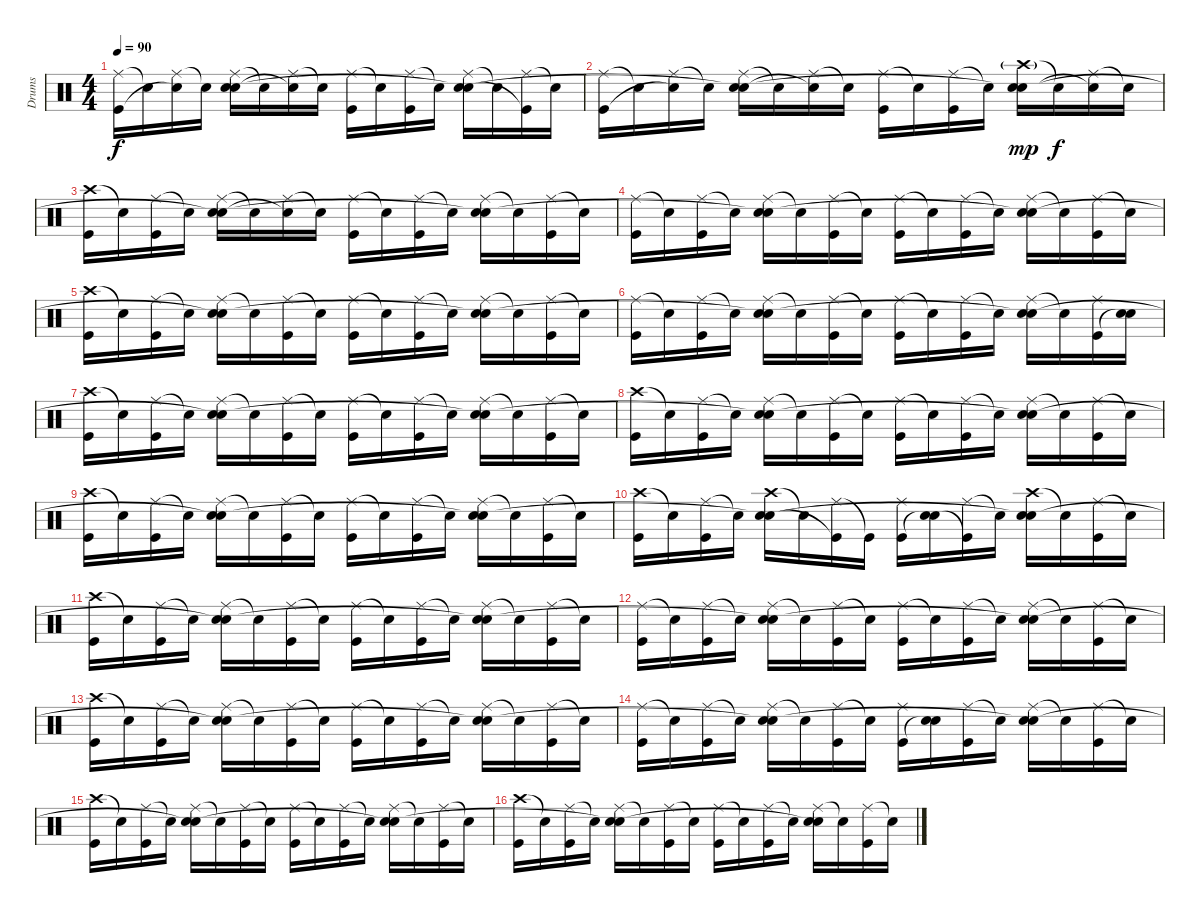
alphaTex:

\track ("Drums" "Drums") {instrument percussion}
\staff {score}
\articulation defaults
\ts (4 4)
\tempo 90
\clef neutral
\ks c
("Ride (middle)" "Kick (hit)").16{dy f} "Snare (hit)"{t}.16 ("Ride (middle)" "Snare (hit)"{t}).16 "Snare (hit)"{t}.16 ("Ride (middle)" "Electric Snare (hit)" "Snare (hit)"{t}).16 "Snare (hit)"{t}.16 ("Ride (middle)" "Snare (hit)"{t}).16 "Snare (hit)"{t}.16 ("Ride (middle)" "Kick (hit)").16 "Snare (hit)"{t}.16 ("Ride (middle)" "Kick (hit)").16 "Snare (hit)"{t}.16 ("Ride (middle)" "Electric Snare (hit)" "Snare (hit)"{t}).16 "Snare (hit)"{t}.16 ("Ride (middle)" "Kick (hit)"{t}).16 "Snare (hit)"{t}.16 |
("Ride (middle)" "Kick (hit)").16 "Snare (hit)"{t}.16 ("Ride (middle)" "Snare (hit)"{t}).16 "Snare (hit)"{t}.16 ("Ride (middle)" "Electric Snare (hit)" "Snare (hit)"{t}).16 "Snare (hit)"{t}.16 ("Ride (middle)" "Snare (hit)"{t}).16 "Snare (hit)"{t}.16 ("Ride (middle)" "Kick (hit)").16 "Snare (hit)"{t}.16 ("Ride (middle)" "Kick (hit)").16 "Snare (hit)"{t}.16 ("Crash high (hit)"{g} "Electric Snare (hit)" "Snare (hit)"{t}).16{dy mp} "Snare (hit)"{t}.16{dy f} ("Ride (middle)" "Snare (hit)"{t}).16 "Snare (hit)"{t}.16 |
("Crash high (hit)" "Kick (hit)").16 "Snare (hit)"{t}.16 ("Ride (middle)" "Kick (hit)").16 "Snare (hit)"{t}.16 ("Ride (middle)" "Electric Snare (hit)" "Snare (hit)"{t}).16 "Snare (hit)"{t}.16 ("Ride (middle)" "Snare (hit)"{t}).16 "Snare (hit)"{t}.16 ("Ride (middle)" "Kick (hit)").16 "Snare (hit)"{t}.16 ("Ride (middle)" "Kick (hit)").16 "Snare (hit)"{t}.16 ("Ride (middle)" "Electric Snare (hit)" "Snare (hit)"{t}).16 "Snare (hit)"{t}.16 ("Ride (middle)" "Kick (hit)").16 "Snare (hit)"{t}.16 |
("Ride (middle)" "Kick (hit)").16 "Snare (hit)"{t}.16 ("Ride (middle)" "Kick (hit)").16 "Snare (hit)"{t}.16 ("Ride (middle)" "Electric Snare (hit)" "Snare (hit)"{t}).16 "Snare (hit)"{t}.16 ("Ride (middle)" "Kick (hit)").16 "Snare (hit)"{t}.16 ("Ride (middle)" "Kick (hit)").16 "Snare (hit)"{t}.16 ("Ride (middle)" "Kick (hit)").16 "Snare (hit)"{t}.16 ("Ride (middle)" "Electric Snare (hit)" "Snare (hit)"{t}).16 "Snare (hit)"{t}.16 ("Ride (middle)" "Kick (hit)").16 "Snare (hit)"{t}.16 |
("Crash high (hit)" "Kick (hit)").16 "Snare (hit)"{t}.16 ("Ride (middle)" "Kick (hit)").16 "Snare (hit)"{t}.16 ("Ride (middle)" "Electric Snare (hit)" "Snare (hit)"{t}).16 "Snare (hit)"{t}.16 ("Ride (middle)" "Kick (hit)").16 "Snare (hit)"{t}.16 ("Ride (middle)" "Kick (hit)").16 "Snare (hit)"{t}.16 ("Ride (middle)" "Kick (hit)").16 "Snare (hit)"{t}.16 ("Ride (middle)" "Electric Snare (hit)" "Snare (hit)"{t}).16 "Snare (hit)"{t}.16 ("Ride (middle)" "Kick (hit)").16 "Snare (hit)"{t}.16 |
("Ride (middle)" "Kick (hit)").16 "Snare (hit)"{t}.16 ("Ride (middle)" "Kick (hit)").16 "Snare (hit)"{t}.16 ("Ride (middle)" "Electric Snare (hit)" "Snare (hit)"{t}).16 "Snare (hit)"{t}.16 ("Ride (middle)" "Kick (hit)").16 "Snare (hit)"{t}.16 ("Ride (middle)" "Kick (hit)").16 "Snare (hit)"{t}.16 ("Ride (middle)" "Kick (hit)").16 "Snare (hit)"{t}.16 ("Ride (middle)" "Electric Snare (hit)" "Snare (hit)"{t}).16 "Snare (hit)"{t}.16 ("Ride (middle)" "Kick (hit)").16 ("Electric Snare (hit)" "Snare (hit)"{t}).16 |
("Crash high (hit)" "Kick (hit)").16 "Snare (hit)"{t}.16 ("Ride (middle)" "Kick (hit)").16 "Snare (hit)"{t}.16 ("Ride (middle)" "Electric Snare (hit)" "Snare (hit)"{t}).16 "Snare (hit)"{t}.16 ("Ride (middle)" "Kick (hit)").16 "Snare (hit)"{t}.16 ("Ride (middle)" "Kick (hit)").16 "Snare (hit)"{t}.16 ("Ride (middle)" "Kick (hit)").16 "Snare (hit)"{t}.16 ("Ride (middle)" "Electric Snare (hit)" "Snare (hit)"{t}).16 "Snare (hit)"{t}.16 ("Ride (middle)" "Kick (hit)").16 "Snare (hit)"{t}.16 |
("Crash high (hit)" "Kick (hit)").16 "Snare (hit)"{t}.16 ("Ride (middle)" "Kick (hit)").16 "Snare (hit)"{t}.16 ("Ride (middle)" "Electric Snare (hit)" "Snare (hit)"{t}).16 "Snare (hit)"{t}.16 ("Ride (middle)" "Kick (hit)").16 "Snare (hit)"{t}.16 ("Ride (middle)" "Kick (hit)").16 "Snare (hit)"{t}.16 ("Ride (middle)" "Kick (hit)").16 "Snare (hit)"{t}.16 ("Ride (middle)" "Electric Snare (hit)" "Snare (hit)"{t}).16 "Snare (hit)"{t}.16 ("Ride (middle)" "Kick (hit)").16 "Snare (hit)"{t}.16 |
("Crash high (hit)" "Kick (hit)").16 "Snare (hit)"{t}.16 ("Ride (middle)" "Kick (hit)").16 "Snare (hit)"{t}.16 ("Ride (middle)" "Electric Snare (hit)" "Snare (hit)"{t}).16 "Snare (hit)"{t}.16 ("Ride (middle)" "Kick (hit)").16 "Snare (hit)"{t}.16 ("Ride (middle)" "Kick (hit)").16 "Snare (hit)"{t}.16 ("Ride (middle)" "Kick (hit)").16 "Snare (hit)"{t}.16 ("Ride (middle)" "Electric Snare (hit)" "Snare (hit)"{t}).16 "Snare (hit)"{t}.16 ("Ride (middle)" "Kick (hit)").16 "Snare (hit)"{t}.16 |
("Crash high (hit)" "Kick (hit)").16 "Snare (hit)"{t}.16 ("Ride (middle)" "Kick (hit)").16 "Snare (hit)"{t}.16 ("Crash high (hit)" "Electric Snare (hit)" "Snare (hit)"{t}).16 "Snare (hit)"{t}.16 ("Ride (middle)" "Kick (hit)"{t}).16 "Kick (hit)"{t}.16 ("Ride (middle)" "Kick (hit)").16 ("Electric Snare (hit)" "Snare (hit)"{t}).16 ("Ride (middle)" "Kick (hit)"{t}).16 "Snare (hit)"{t}.16 ("Crash high (hit)" "Electric Snare (hit)" "Snare (hit)"{t}).16 "Snare (hit)"{t}.16 ("Ride (middle)" "Kick (hit)").16 "Snare (hit)"{t}.16 |
("Crash high (hit)" "Kick (hit)").16 "Snare (hit)"{t}.16 ("Ride (middle)" "Kick (hit)").16 "Snare (hit)"{t}.16 ("Ride (middle)" "Electric Snare (hit)" "Snare (hit)"{t}).16 "Snare (hit)"{t}.16 ("Ride (middle)" "Kick (hit)").16 "Snare (hit)"{t}.16 ("Ride (middle)" "Kick (hit)").16 "Snare (hit)"{t}.16 ("Ride (middle)" "Kick (hit)").16 "Snare (hit)"{t}.16 ("Ride (middle)" "Electric Snare (hit)" "Snare (hit)"{t}).16 "Snare (hit)"{t}.16 ("Ride (middle)" "Kick (hit)").16 "Snare (hit)"{t}.16 |
("Ride (middle)" "Kick (hit)").16 "Snare (hit)"{t}.16 ("Ride (middle)" "Kick (hit)").16 "Snare (hit)"{t}.16 ("Ride (middle)" "Electric Snare (hit)" "Snare (hit)"{t}).16 "Snare (hit)"{t}.16 ("Ride (middle)" "Kick (hit)").16 "Snare (hit)"{t}.16 ("Ride (middle)" "Kick (hit)").16 "Snare (hit)"{t}.16 ("Ride (middle)" "Kick (hit)").16 "Snare (hit)"{t}.16 ("Ride (middle)" "Electric Snare (hit)" "Snare (hit)"{t}).16 "Snare (hit)"{t}.16 ("Ride (middle)" "Kick (hit)").16 "Snare (hit)"{t}.16 |
("Crash high (hit)" "Kick (hit)").16 "Snare (hit)"{t}.16 ("Ride (middle)" "Kick (hit)").16 "Snare (hit)"{t}.16 ("Ride (middle)" "Electric Snare (hit)" "Snare (hit)"{t}).16 "Snare (hit)"{t}.16 ("Ride (middle)" "Kick (hit)").16 "Snare (hit)"{t}.16 ("Ride (middle)" "Kick (hit)").16 "Snare (hit)"{t}.16 ("Ride (middle)" "Kick (hit)").16 "Snare (hit)"{t}.16 ("Ride (middle)" "Electric Snare (hit)" "Snare (hit)"{t}).16 "Snare (hit)"{t}.16 ("Ride (middle)" "Kick (hit)").16 "Snare (hit)"{t}.16 |
("Ride (middle)" "Kick (hit)").16 "Snare (hit)"{t}.16 ("Ride (middle)" "Kick (hit)").16 "Snare (hit)"{t}.16 ("Ride (middle)" "Electric Snare (hit)" "Snare (hit)"{t}).16 "Snare (hit)"{t}.16 ("Ride (middle)" "Kick (hit)").16 "Snare (hit)"{t}.16 ("Ride (middle)" "Kick (hit)").16 ("Electric Snare (hit)" "Snare (hit)"{t}).16 ("Ride (middle)" "Kick (hit)").16 "Snare (hit)"{t}.16 ("Ride (middle)" "Electric Snare (hit)" "Snare (hit)"{t}).16 "Snare (hit)"{t}.16 ("Ride (middle)" "Kick (hit)").16 "Snare (hit)"{t}.16 |
("Crash high (hit)" "Kick (hit)").16 "Snare (hit)"{t}.16 ("Ride (middle)" "Kick (hit)").16 "Snare (hit)"{t}.16 ("Ride (middle)" "Electric Snare (hit)" "Snare (hit)"{t}).16 "Snare (hit)"{t}.16 ("Ride (middle)" "Kick (hit)").16 "Snare (hit)"{t}.16 ("Ride (middle)" "Kick (hit)").16 "Snare (hit)"{t}.16 ("Ride (middle)" "Kick (hit)").16 "Snare (hit)"{t}.16 ("Ride (middle)" "Electric Snare (hit)" "Snare (hit)"{t}).16 "Snare (hit)"{t}.16 ("Ride (middle)" "Kick (hit)").16 "Snare (hit)"{t}.16 |
("Crash high (hit)" "Kick (hit)").16 "Snare (hit)"{t}.16 ("Ride (middle)" "Kick (hit)").16 "Snare (hit)"{t}.16 ("Ride (middle)" "Electric Snare (hit)" "Snare (hit)"{t}).16 "Snare (hit)"{t}.16 ("Ride (middle)" "Kick (hit)").16 "Snare (hit)"{t}.16 ("Ride (middle)" "Kick (hit)").16 "Snare (hit)"{t}.16 ("Ride (middle)" "Kick (hit)").16 "Snare (hit)"{t}.16 ("Ride (middle)" "Electric Snare (hit)" "Snare (hit)"{t}).16 "Snare (hit)"{t}.16 ("Ride (middle)" "Kick (hit)").16 "Snare (hit)"{t}.16
